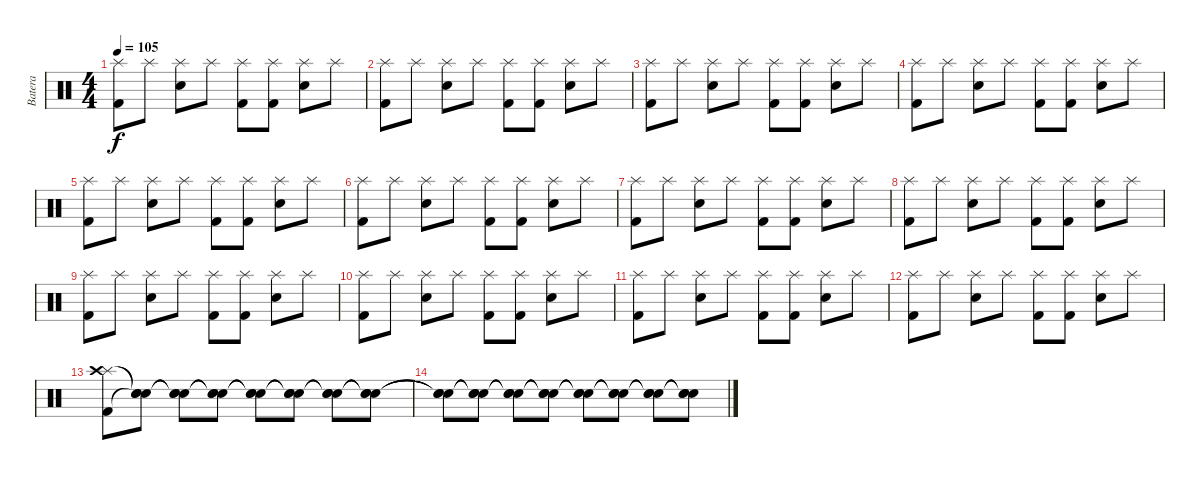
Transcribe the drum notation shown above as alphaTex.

\track ("Batera" "Batera") {instrument percussion}
\staff {score}
\articulation defaults
\ts (4 4)
\tempo 105
\clef neutral
\ks c
("Splash (hit)" "Kick (hit) 2").8{dy f} "Splash (hit)".8 ("Splash (hit)" "Snare (hit) 2").8 "Splash (hit)".8 ("Splash (hit)" "Kick (hit) 2").8 ("Splash (hit)" "Kick (hit) 2").8 ("Splash (hit)" "Snare (hit) 2").8 "Splash (hit)".8 |
("Splash (hit)" "Kick (hit) 2").8 "Splash (hit)".8 ("Splash (hit)" "Snare (hit) 2").8 "Splash (hit)".8 ("Splash (hit)" "Kick (hit) 2").8 ("Splash (hit)" "Kick (hit) 2").8 ("Splash (hit)" "Snare (hit) 2").8 "Splash (hit)".8 |
("Splash (hit)" "Kick (hit) 2").8 "Splash (hit)".8 ("Splash (hit)" "Snare (hit) 2").8 "Splash (hit)".8 ("Splash (hit)" "Kick (hit) 2").8 ("Splash (hit)" "Kick (hit) 2").8 ("Splash (hit)" "Snare (hit) 2").8 "Splash (hit)".8 |
("Splash (hit)" "Kick (hit) 2").8 "Splash (hit)".8 ("Splash (hit)" "Snare (hit) 2").8 "Splash (hit)".8 ("Splash (hit)" "Kick (hit) 2").8 ("Splash (hit)" "Kick (hit) 2").8 ("Splash (hit)" "Snare (hit) 2").8 "Splash (hit)".8 |
("Splash (hit)" "Kick (hit) 2").8 "Splash (hit)".8 ("Splash (hit)" "Snare (hit) 2").8 "Splash (hit)".8 ("Splash (hit)" "Kick (hit) 2").8 ("Splash (hit)" "Kick (hit) 2").8 ("Splash (hit)" "Snare (hit) 2").8 "Splash (hit)".8 |
("Splash (hit)" "Kick (hit) 2").8 "Splash (hit)".8 ("Splash (hit)" "Snare (hit) 2").8 "Splash (hit)".8 ("Splash (hit)" "Kick (hit) 2").8 ("Splash (hit)" "Kick (hit) 2").8 ("Splash (hit)" "Snare (hit) 2").8 "Splash (hit)".8 |
("Splash (hit)" "Kick (hit) 2").8 "Splash (hit)".8 ("Splash (hit)" "Snare (hit) 2").8 "Splash (hit)".8 ("Splash (hit)" "Kick (hit) 2").8 ("Splash (hit)" "Kick (hit) 2").8 ("Splash (hit)" "Snare (hit) 2").8 "Splash (hit)".8 |
("Splash (hit)" "Kick (hit) 2").8 "Splash (hit)".8 ("Splash (hit)" "Snare (hit) 2").8 "Splash (hit)".8 ("Splash (hit)" "Kick (hit) 2").8 ("Splash (hit)" "Kick (hit) 2").8 ("Splash (hit)" "Snare (hit) 2").8 "Splash (hit)".8 |
("Splash (hit)" "Kick (hit) 2").8 "Splash (hit)".8 ("Splash (hit)" "Snare (hit) 2").8 "Splash (hit)".8 ("Splash (hit)" "Kick (hit) 2").8 ("Splash (hit)" "Kick (hit) 2").8 ("Splash (hit)" "Snare (hit) 2").8 "Splash (hit)".8 |
("Splash (hit)" "Kick (hit) 2").8 "Splash (hit)".8 ("Splash (hit)" "Snare (hit) 2").8 "Splash (hit)".8 ("Splash (hit)" "Kick (hit) 2").8 ("Splash (hit)" "Kick (hit) 2").8 ("Splash (hit)" "Snare (hit) 2").8 "Splash (hit)".8 |
("Splash (hit)" "Kick (hit) 2").8 "Splash (hit)".8 ("Splash (hit)" "Snare (hit) 2").8 "Splash (hit)".8 ("Splash (hit)" "Kick (hit) 2").8 ("Splash (hit)" "Kick (hit) 2").8 ("Splash (hit)" "Snare (hit) 2").8 "Splash (hit)".8 |
("Splash (hit)" "Kick (hit) 2").8 "Splash (hit)".8 ("Splash (hit)" "Snare (hit) 2").8 "Splash (hit)".8 ("Splash (hit)" "Kick (hit) 2").8 ("Splash (hit)" "Kick (hit) 2").8 ("Splash (hit)" "Snare (hit) 2").8 "Splash (hit)".8 |
("Splash (hit)" "Kick (hit) 2" "Crash high (hit)").8 ("Snare (hit)"{t} "Snare (hit)"{t} "Snare (hit)"{t}).8 ("Snare (hit)"{t} "Snare (hit)"{t} "Snare (hit)"{t}).8 ("Snare (hit)"{t} "Snare (hit)"{t} "Snare (hit)"{t}).8 ("Snare (hit)"{t} "Snare (hit)"{t} "Snare (hit)"{t}).8 ("Snare (hit)"{t} "Snare (hit)"{t} "Snare (hit)"{t}).8 ("Snare (hit)"{t} "Snare (hit)"{t} "Snare (hit)"{t}).8 ("Snare (hit)"{t} "Snare (hit)"{t} "Snare (hit)"{t}).8 |
("Snare (hit)"{t} "Snare (hit)"{t} "Snare (hit)"{t}).8 ("Snare (hit)"{t} "Snare (hit)"{t} "Snare (hit)"{t}).8 ("Snare (hit)"{t} "Snare (hit)"{t} "Snare (hit)"{t}).8 ("Snare (hit)"{t} "Snare (hit)"{t} "Snare (hit)"{t}).8 ("Snare (hit)"{t} "Snare (hit)"{t} "Snare (hit)"{t}).8 ("Snare (hit)"{t} "Snare (hit)"{t} "Snare (hit)"{t}).8 ("Snare (hit)"{t} "Snare (hit)"{t} "Snare (hit)"{t}).8 ("Snare (hit)"{t} "Snare (hit)"{t} "Snare (hit)"{t}).8
